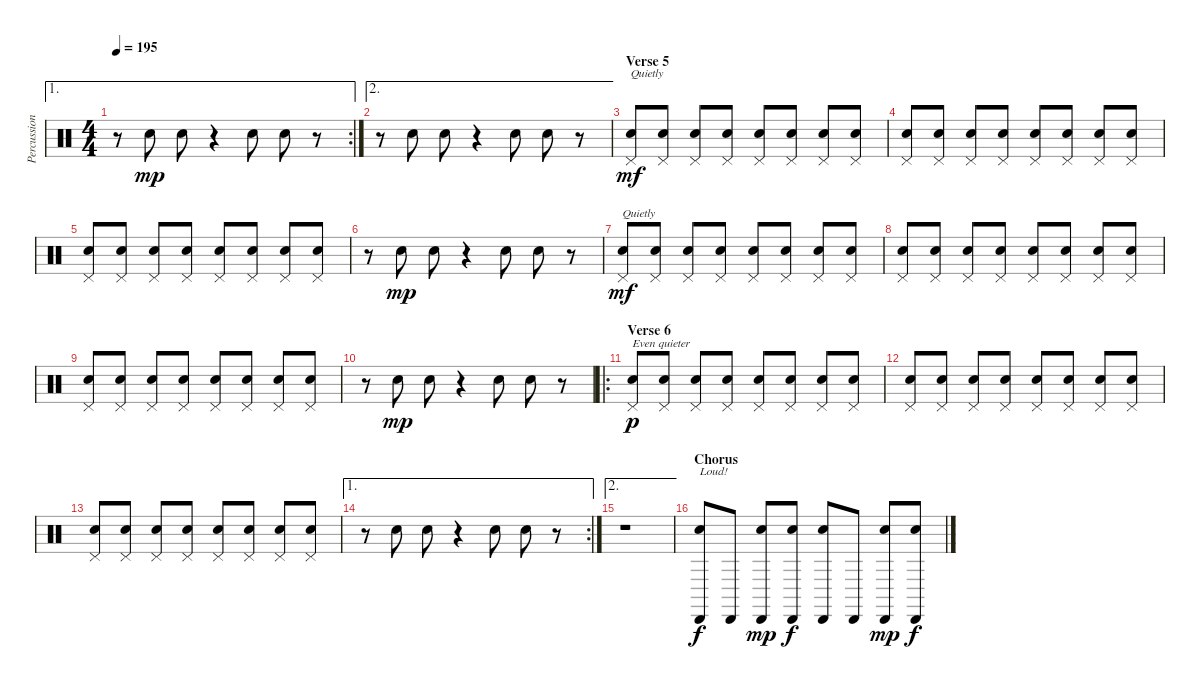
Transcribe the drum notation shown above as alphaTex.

\track ("Percussion" "Percussion") {instrument percussion}
\staff {score}
\articulation defaults
\ae 1
\rc 2
\ts (4 4)
\tempo 195
\clef neutral
\ks c
r.8{dy mf} "Snare (hit) 2".8{dy mp} "Snare (hit) 2".8 r.4 "Snare (hit) 2".8 "Snare (hit) 2".8 r.8 |
\ae 2
r.8 "Snare (hit) 2".8 "Snare (hit) 2".8 r.4 "Snare (hit) 2".8 "Snare (hit) 2".8 r.8 |
\section ("" "Verse 5")
("Snare (hit) 2" "Pedal Hi-Hat (hit)").8{txt "Quietly" dy mf volume 5} ("Snare (hit) 2" "Pedal Hi-Hat (hit)").8 ("Snare (hit) 2" "Pedal Hi-Hat (hit)").8 ("Snare (hit) 2" "Pedal Hi-Hat (hit)").8 ("Snare (hit) 2" "Pedal Hi-Hat (hit)").8 ("Snare (hit) 2" "Pedal Hi-Hat (hit)").8 ("Snare (hit) 2" "Pedal Hi-Hat (hit)").8 ("Snare (hit) 2" "Pedal Hi-Hat (hit)").8 |
("Snare (hit) 2" "Pedal Hi-Hat (hit)").8 ("Snare (hit) 2" "Pedal Hi-Hat (hit)").8 ("Snare (hit) 2" "Pedal Hi-Hat (hit)").8 ("Snare (hit) 2" "Pedal Hi-Hat (hit)").8 ("Snare (hit) 2" "Pedal Hi-Hat (hit)").8 ("Snare (hit) 2" "Pedal Hi-Hat (hit)").8 ("Snare (hit) 2" "Pedal Hi-Hat (hit)").8 ("Snare (hit) 2" "Pedal Hi-Hat (hit)").8 |
("Snare (hit) 2" "Pedal Hi-Hat (hit)").8 ("Snare (hit) 2" "Pedal Hi-Hat (hit)").8 ("Snare (hit) 2" "Pedal Hi-Hat (hit)").8 ("Snare (hit) 2" "Pedal Hi-Hat (hit)").8 ("Snare (hit) 2" "Pedal Hi-Hat (hit)").8 ("Snare (hit) 2" "Pedal Hi-Hat (hit)").8 ("Snare (hit) 2" "Pedal Hi-Hat (hit)").8 ("Snare (hit) 2" "Pedal Hi-Hat (hit)").8 |
r.8 "Snare (hit) 2".8{dy mp} "Snare (hit) 2".8 r.4 "Snare (hit) 2".8 "Snare (hit) 2".8 r.8 |
("Snare (hit) 2" "Pedal Hi-Hat (hit)").8{txt "Quietly" dy mf volume 5} ("Snare (hit) 2" "Pedal Hi-Hat (hit)").8 ("Snare (hit) 2" "Pedal Hi-Hat (hit)").8 ("Snare (hit) 2" "Pedal Hi-Hat (hit)").8 ("Snare (hit) 2" "Pedal Hi-Hat (hit)").8 ("Snare (hit) 2" "Pedal Hi-Hat (hit)").8 ("Snare (hit) 2" "Pedal Hi-Hat (hit)").8 ("Snare (hit) 2" "Pedal Hi-Hat (hit)").8 |
("Snare (hit) 2" "Pedal Hi-Hat (hit)").8 ("Snare (hit) 2" "Pedal Hi-Hat (hit)").8 ("Snare (hit) 2" "Pedal Hi-Hat (hit)").8 ("Snare (hit) 2" "Pedal Hi-Hat (hit)").8 ("Snare (hit) 2" "Pedal Hi-Hat (hit)").8 ("Snare (hit) 2" "Pedal Hi-Hat (hit)").8 ("Snare (hit) 2" "Pedal Hi-Hat (hit)").8 ("Snare (hit) 2" "Pedal Hi-Hat (hit)").8 |
("Snare (hit) 2" "Pedal Hi-Hat (hit)").8 ("Snare (hit) 2" "Pedal Hi-Hat (hit)").8 ("Snare (hit) 2" "Pedal Hi-Hat (hit)").8 ("Snare (hit) 2" "Pedal Hi-Hat (hit)").8 ("Snare (hit) 2" "Pedal Hi-Hat (hit)").8 ("Snare (hit) 2" "Pedal Hi-Hat (hit)").8 ("Snare (hit) 2" "Pedal Hi-Hat (hit)").8 ("Snare (hit) 2" "Pedal Hi-Hat (hit)").8 |
r.8 "Snare (hit) 2".8{dy mp} "Snare (hit) 2".8 r.4 "Snare (hit) 2".8 "Snare (hit) 2".8 r.8 |
\ro
\section ("" "Verse 6")
("Snare (hit) 2" "Pedal Hi-Hat (hit)").8{txt "Even quieter" dy p volume 4} ("Snare (hit) 2" "Pedal Hi-Hat (hit)").8 ("Snare (hit) 2" "Pedal Hi-Hat (hit)").8 ("Snare (hit) 2" "Pedal Hi-Hat (hit)").8 ("Snare (hit) 2" "Pedal Hi-Hat (hit)").8 ("Snare (hit) 2" "Pedal Hi-Hat (hit)").8 ("Snare (hit) 2" "Pedal Hi-Hat (hit)").8 ("Snare (hit) 2" "Pedal Hi-Hat (hit)").8 |
("Snare (hit) 2" "Pedal Hi-Hat (hit)").8 ("Snare (hit) 2" "Pedal Hi-Hat (hit)").8 ("Snare (hit) 2" "Pedal Hi-Hat (hit)").8 ("Snare (hit) 2" "Pedal Hi-Hat (hit)").8 ("Snare (hit) 2" "Pedal Hi-Hat (hit)").8 ("Snare (hit) 2" "Pedal Hi-Hat (hit)").8 ("Snare (hit) 2" "Pedal Hi-Hat (hit)").8 ("Snare (hit) 2" "Pedal Hi-Hat (hit)").8 |
("Snare (hit) 2" "Pedal Hi-Hat (hit)").8 ("Snare (hit) 2" "Pedal Hi-Hat (hit)").8 ("Snare (hit) 2" "Pedal Hi-Hat (hit)").8 ("Snare (hit) 2" "Pedal Hi-Hat (hit)").8 ("Snare (hit) 2" "Pedal Hi-Hat (hit)").8 ("Snare (hit) 2" "Pedal Hi-Hat (hit)").8 ("Snare (hit) 2" "Pedal Hi-Hat (hit)").8 ("Snare (hit) 2" "Pedal Hi-Hat (hit)").8 |
\ae 1
\rc 2
r.8 "Snare (hit) 2".8 "Snare (hit) 2".8 r.4 "Snare (hit) 2".8 "Snare (hit) 2".8 r.8 |
\ae 2
r.1 |
\section ("" "Chorus")
("Cabasa (hit)" "Snare (hit) 2").8{txt "Loud!" dy f volume 8} "Cabasa (hit)".8 ("Cabasa (hit)" "Snare (hit) 2").8{dy mp} ("Cabasa (hit)" "Snare (hit) 2").8{dy f} ("Cabasa (hit)" "Snare (hit) 2").8 "Cabasa (hit)".8 ("Cabasa (hit)" "Snare (hit) 2").8{dy mp} ("Cabasa (hit)" "Snare (hit) 2").8{dy f}
